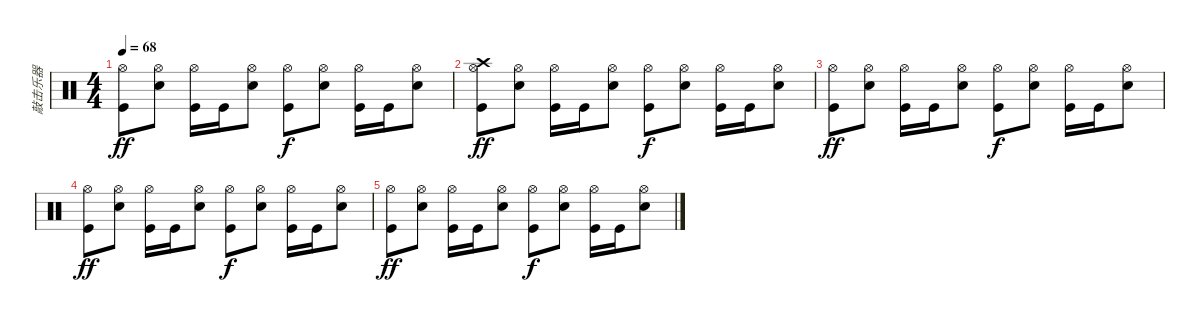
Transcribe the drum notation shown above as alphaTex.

\track ("敲击乐器" "敲击乐器") {instrument percussion}
\staff {score}
\articulation defaults
\ts (4 4)
\tempo 68
\clef neutral
\ks c
("Hi-Hat (open)" "Kick (hit)").8{dy ff} ("Hi-Hat (open)" "Snare (hit) 2").8 ("Hi-Hat (open)" "Kick (hit)").16 "Kick (hit)".16 ("Hi-Hat (open)" "Snare (hit) 2").8 ("Hi-Hat (open)" "Kick (hit)").8{dy f} ("Hi-Hat (open)" "Snare (hit) 2").8 ("Hi-Hat (open)" "Kick (hit)").16 "Kick (hit)".16 ("Hi-Hat (open)" "Snare (hit) 2").8 |
("Crash high (hit)" "Hi-Hat (open)" "Kick (hit)").8{dy ff} ("Hi-Hat (open)" "Snare (hit) 2").8 ("Hi-Hat (open)" "Kick (hit)").16 "Kick (hit)".16 ("Hi-Hat (open)" "Snare (hit) 2").8 ("Hi-Hat (open)" "Kick (hit)").8{dy f} ("Hi-Hat (open)" "Snare (hit) 2").8 ("Hi-Hat (open)" "Kick (hit)").16 "Kick (hit)".16 ("Hi-Hat (open)" "Snare (hit) 2").8 |
("Hi-Hat (open)" "Kick (hit)").8{dy ff} ("Hi-Hat (open)" "Snare (hit) 2").8 ("Hi-Hat (open)" "Kick (hit)").16 "Kick (hit)".16 ("Hi-Hat (open)" "Snare (hit) 2").8 ("Hi-Hat (open)" "Kick (hit)").8{dy f} ("Hi-Hat (open)" "Snare (hit) 2").8 ("Hi-Hat (open)" "Kick (hit)").16 "Kick (hit)".16 ("Hi-Hat (open)" "Snare (hit) 2").8 |
("Hi-Hat (open)" "Kick (hit)").8{dy ff} ("Hi-Hat (open)" "Snare (hit) 2").8 ("Hi-Hat (open)" "Kick (hit)").16 "Kick (hit)".16 ("Hi-Hat (open)" "Snare (hit) 2").8 ("Hi-Hat (open)" "Kick (hit)").8{dy f} ("Hi-Hat (open)" "Snare (hit) 2").8 ("Hi-Hat (open)" "Kick (hit)").16 "Kick (hit)".16 ("Hi-Hat (open)" "Snare (hit) 2").8 |
("Hi-Hat (open)" "Kick (hit)").8{dy ff} ("Hi-Hat (open)" "Snare (hit) 2").8 ("Hi-Hat (open)" "Kick (hit)").16 "Kick (hit)".16 ("Hi-Hat (open)" "Snare (hit) 2").8 ("Hi-Hat (open)" "Kick (hit)").8{dy f} ("Hi-Hat (open)" "Snare (hit) 2").8 ("Hi-Hat (open)" "Kick (hit)").16 "Kick (hit)".16 ("Hi-Hat (open)" "Snare (hit) 2").8
